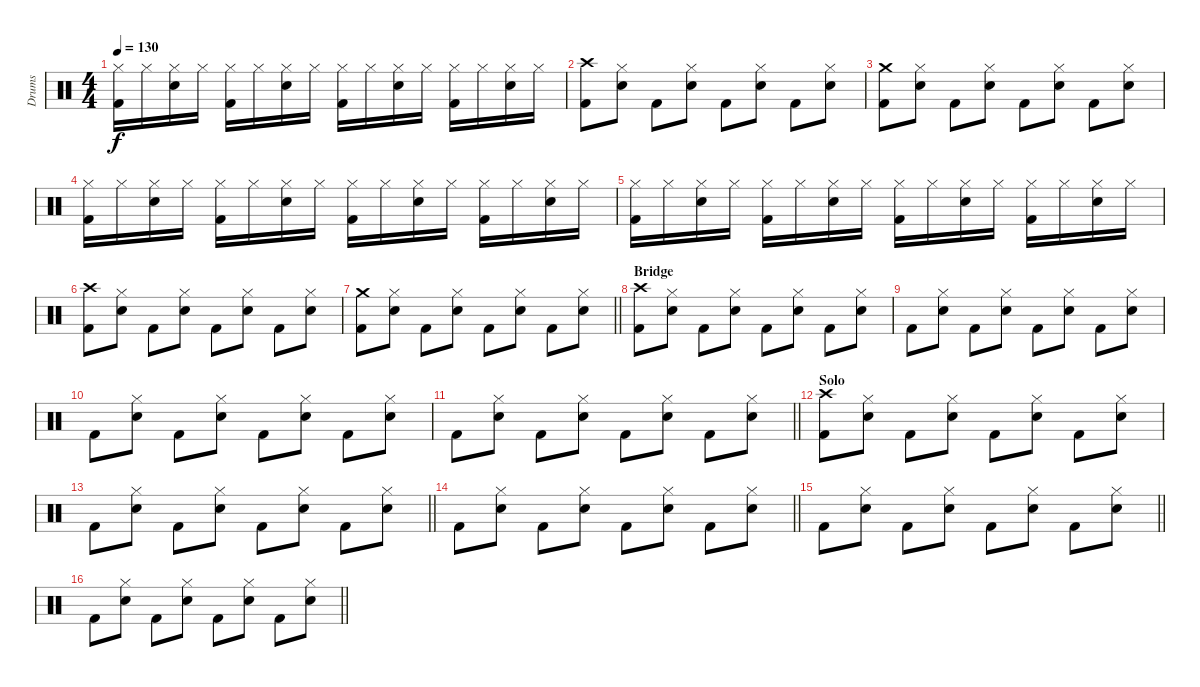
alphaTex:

\track ("Drums" "Drums") {instrument percussion}
\staff {score}
\articulation defaults
\ts (4 4)
\tempo 130
\clef neutral
\ks c
("Hi-Hat (closed)" "Kick (hit) 2").16{dy f} "Hi-Hat (closed)".16 ("Hi-Hat (closed)" "Electric Snare (hit)").16 "Hi-Hat (closed)".16 ("Hi-Hat (closed)" "Kick (hit) 2").16 "Hi-Hat (closed)".16 ("Hi-Hat (closed)" "Electric Snare (hit)").16 "Hi-Hat (closed)".16 ("Hi-Hat (closed)" "Kick (hit) 2").16 "Hi-Hat (closed)".16 ("Hi-Hat (closed)" "Electric Snare (hit)").16 "Hi-Hat (closed)".16 ("Hi-Hat (closed)" "Kick (hit) 2").16 "Hi-Hat (closed)".16 ("Hi-Hat (closed)" "Electric Snare (hit)").16 "Hi-Hat (closed)".16 |
("Crash high (hit)" "Kick (hit) 2").8 ("Electric Snare (hit)" "Hi-Hat (closed)").8 "Kick (hit) 2".8 ("Electric Snare (hit)" "Hi-Hat (closed)").8 "Kick (hit) 2".8 ("Electric Snare (hit)" "Hi-Hat (closed)").8 "Kick (hit) 2".8 ("Electric Snare (hit)" "Hi-Hat (closed)").8 |
("Crash medium (hit)" "Kick (hit) 2").8 ("Electric Snare (hit)" "Hi-Hat (closed)").8 "Kick (hit) 2".8 ("Electric Snare (hit)" "Hi-Hat (closed)").8 "Kick (hit) 2".8 ("Electric Snare (hit)" "Hi-Hat (closed)").8 "Kick (hit) 2".8 ("Electric Snare (hit)" "Hi-Hat (closed)").8 |
("Hi-Hat (closed)" "Kick (hit) 2").16 "Hi-Hat (closed)".16 ("Hi-Hat (closed)" "Electric Snare (hit)").16 "Hi-Hat (closed)".16 ("Hi-Hat (closed)" "Kick (hit) 2").16 "Hi-Hat (closed)".16 ("Hi-Hat (closed)" "Electric Snare (hit)").16 "Hi-Hat (closed)".16 ("Hi-Hat (closed)" "Kick (hit) 2").16 "Hi-Hat (closed)".16 ("Hi-Hat (closed)" "Electric Snare (hit)").16 "Hi-Hat (closed)".16 ("Hi-Hat (closed)" "Kick (hit) 2").16 "Hi-Hat (closed)".16 ("Hi-Hat (closed)" "Electric Snare (hit)").16 "Hi-Hat (closed)".16 |
("Hi-Hat (closed)" "Kick (hit) 2").16 "Hi-Hat (closed)".16 ("Hi-Hat (closed)" "Electric Snare (hit)").16 "Hi-Hat (closed)".16 ("Hi-Hat (closed)" "Kick (hit) 2").16 "Hi-Hat (closed)".16 ("Hi-Hat (closed)" "Electric Snare (hit)").16 "Hi-Hat (closed)".16 ("Hi-Hat (closed)" "Kick (hit) 2").16 "Hi-Hat (closed)".16 ("Hi-Hat (closed)" "Electric Snare (hit)").16 "Hi-Hat (closed)".16 ("Hi-Hat (closed)" "Kick (hit) 2").16 "Hi-Hat (closed)".16 ("Hi-Hat (closed)" "Electric Snare (hit)").16 "Hi-Hat (closed)".16 |
("Crash high (hit)" "Kick (hit) 2").8 ("Electric Snare (hit)" "Hi-Hat (closed)").8 "Kick (hit) 2".8 ("Electric Snare (hit)" "Hi-Hat (closed)").8 "Kick (hit) 2".8 ("Electric Snare (hit)" "Hi-Hat (closed)").8 "Kick (hit) 2".8 ("Electric Snare (hit)" "Hi-Hat (closed)").8 |
\barLineRight lightlight
("Crash medium (hit)" "Kick (hit) 2").8 ("Electric Snare (hit)" "Hi-Hat (closed)").8 "Kick (hit) 2".8 ("Electric Snare (hit)" "Hi-Hat (closed)").8 "Kick (hit) 2".8 ("Electric Snare (hit)" "Hi-Hat (closed)").8 "Kick (hit) 2".8 ("Electric Snare (hit)" "Hi-Hat (closed)").8 |
\section ("" "Bridge")
("Crash high (hit)" "Kick (hit) 2").8 ("Electric Snare (hit)" "Hi-Hat (closed)").8 "Kick (hit) 2".8 ("Electric Snare (hit)" "Hi-Hat (closed)").8 "Kick (hit) 2".8 ("Electric Snare (hit)" "Hi-Hat (closed)").8 "Kick (hit) 2".8 ("Electric Snare (hit)" "Hi-Hat (closed)").8 |
"Kick (hit) 2".8 ("Electric Snare (hit)" "Hi-Hat (closed)").8 "Kick (hit) 2".8 ("Electric Snare (hit)" "Hi-Hat (closed)").8 "Kick (hit) 2".8 ("Electric Snare (hit)" "Hi-Hat (closed)").8 "Kick (hit) 2".8 ("Electric Snare (hit)" "Hi-Hat (closed)").8 |
"Kick (hit) 2".8 ("Electric Snare (hit)" "Hi-Hat (closed)").8 "Kick (hit) 2".8 ("Electric Snare (hit)" "Hi-Hat (closed)").8 "Kick (hit) 2".8 ("Electric Snare (hit)" "Hi-Hat (closed)").8 "Kick (hit) 2".8 ("Electric Snare (hit)" "Hi-Hat (closed)").8 |
\barLineRight lightlight "Kick (hit) 2".8
("Electric Snare (hit)" "Hi-Hat (closed)").8 "Kick (hit) 2".8 ("Electric Snare (hit)" "Hi-Hat (closed)").8 "Kick (hit) 2".8 ("Electric Snare (hit)" "Hi-Hat (closed)").8 "Kick (hit) 2".8 ("Electric Snare (hit)" "Hi-Hat (closed)").8 |
\section ("" "Solo")
("Crash high (hit)" "Kick (hit) 2").8 ("Electric Snare (hit)" "Hi-Hat (closed)").8 "Kick (hit) 2".8 ("Electric Snare (hit)" "Hi-Hat (closed)").8 "Kick (hit) 2".8 ("Electric Snare (hit)" "Hi-Hat (closed)").8 "Kick (hit) 2".8 ("Electric Snare (hit)" "Hi-Hat (closed)").8 |
\barLineRight lightlight "Kick (hit) 2".8
("Electric Snare (hit)" "Hi-Hat (closed)").8 "Kick (hit) 2".8 ("Electric Snare (hit)" "Hi-Hat (closed)").8 "Kick (hit) 2".8 ("Electric Snare (hit)" "Hi-Hat (closed)").8 "Kick (hit) 2".8 ("Electric Snare (hit)" "Hi-Hat (closed)").8 |
\barLineRight lightlight "Kick (hit) 2".8
("Electric Snare (hit)" "Hi-Hat (closed)").8 "Kick (hit) 2".8 ("Electric Snare (hit)" "Hi-Hat (closed)").8 "Kick (hit) 2".8 ("Electric Snare (hit)" "Hi-Hat (closed)").8 "Kick (hit) 2".8 ("Electric Snare (hit)" "Hi-Hat (closed)").8 |
\barLineRight lightlight "Kick (hit) 2".8
("Electric Snare (hit)" "Hi-Hat (closed)").8 "Kick (hit) 2".8 ("Electric Snare (hit)" "Hi-Hat (closed)").8 "Kick (hit) 2".8 ("Electric Snare (hit)" "Hi-Hat (closed)").8 "Kick (hit) 2".8 ("Electric Snare (hit)" "Hi-Hat (closed)").8 |
\barLineRight lightlight "Kick (hit) 2".8
("Electric Snare (hit)" "Hi-Hat (closed)").8 "Kick (hit) 2".8 ("Electric Snare (hit)" "Hi-Hat (closed)").8 "Kick (hit) 2".8 ("Electric Snare (hit)" "Hi-Hat (closed)").8 "Kick (hit) 2".8 ("Electric Snare (hit)" "Hi-Hat (closed)").8
